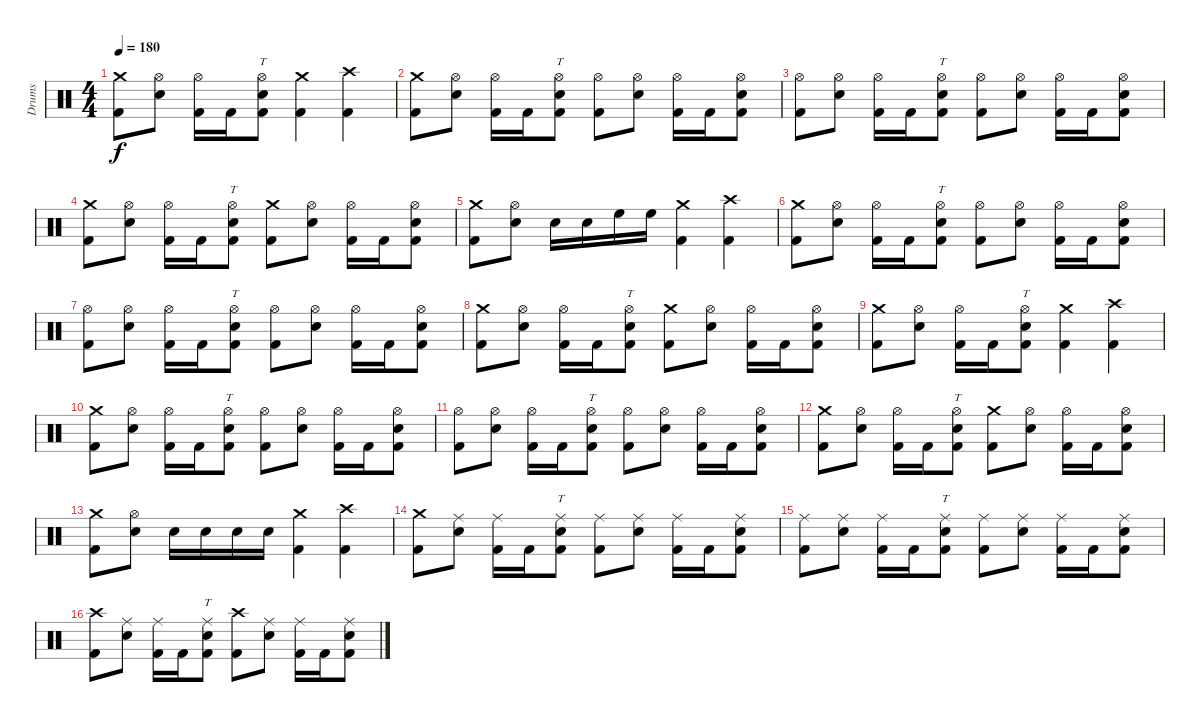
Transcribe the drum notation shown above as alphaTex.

\track ("Drums" "Drums") {instrument percussion}
\staff {score}
\articulation defaults
\ts (4 4)
\tempo 180
\clef neutral
\ks c
("Crash medium (hit)" "Kick (hit) 2").8{dy f} ("Hi-Hat (open)" "Electric Snare (hit)").8 ("Hi-Hat (open)" "Kick (hit) 2").16 "Kick (hit) 2".16 ("Hi-Hat (open)" "Electric Snare (hit)" "Kick (hit) 2").8{tt} ("Crash medium (hit)" "Kick (hit) 2").4 ("Crash high (hit)" "Kick (hit) 2").4 |
("Crash medium (hit)" "Kick (hit) 2").8 ("Hi-Hat (open)" "Electric Snare (hit)").8 ("Hi-Hat (open)" "Kick (hit) 2").16 "Kick (hit) 2".16 ("Hi-Hat (open)" "Electric Snare (hit)" "Kick (hit) 2").8{tt} ("Hi-Hat (open)" "Kick (hit) 2").8 ("Hi-Hat (open)" "Electric Snare (hit)").8 ("Hi-Hat (open)" "Kick (hit) 2").16 "Kick (hit) 2".16 ("Hi-Hat (open)" "Electric Snare (hit)" "Kick (hit) 2").8 |
("Hi-Hat (open)" "Kick (hit) 2").8 ("Hi-Hat (open)" "Electric Snare (hit)").8 ("Hi-Hat (open)" "Kick (hit) 2").16 "Kick (hit) 2".16 ("Hi-Hat (open)" "Electric Snare (hit)" "Kick (hit) 2").8{tt} ("Hi-Hat (open)" "Kick (hit) 2").8 ("Hi-Hat (open)" "Electric Snare (hit)").8 ("Hi-Hat (open)" "Kick (hit) 2").16 "Kick (hit) 2".16 ("Hi-Hat (open)" "Electric Snare (hit)" "Kick (hit) 2").8 |
("Crash medium (hit)" "Kick (hit) 2").8 ("Hi-Hat (open)" "Electric Snare (hit)").8 ("Hi-Hat (open)" "Kick (hit) 2").16 "Kick (hit) 2".16 ("Hi-Hat (open)" "Electric Snare (hit)" "Kick (hit) 2").8{tt} ("Crash medium (hit)" "Kick (hit) 2").8 ("Hi-Hat (open)" "Electric Snare (hit)").8 ("Hi-Hat (open)" "Kick (hit) 2").16 "Kick (hit) 2".16 ("Hi-Hat (open)" "Electric Snare (hit)" "Kick (hit) 2").8 |
("Crash medium (hit)" "Kick (hit) 2").8 ("Hi-Hat (open)" "Electric Snare (hit)").8 "Electric Snare (hit)".16 "Electric Snare (hit)".16 "High Floor Tom (hit)".16 "High Floor Tom (hit)".16 ("Crash medium (hit)" "Kick (hit) 2").4 ("Crash high (hit)" "Kick (hit) 2").4 |
("Crash medium (hit)" "Kick (hit) 2").8 ("Hi-Hat (open)" "Electric Snare (hit)").8 ("Hi-Hat (open)" "Kick (hit) 2").16 "Kick (hit) 2".16 ("Hi-Hat (open)" "Electric Snare (hit)" "Kick (hit) 2").8{tt} ("Hi-Hat (open)" "Kick (hit) 2").8 ("Hi-Hat (open)" "Electric Snare (hit)").8 ("Hi-Hat (open)" "Kick (hit) 2").16 "Kick (hit) 2".16 ("Hi-Hat (open)" "Electric Snare (hit)" "Kick (hit) 2").8 |
("Hi-Hat (open)" "Kick (hit) 2").8 ("Hi-Hat (open)" "Electric Snare (hit)").8 ("Hi-Hat (open)" "Kick (hit) 2").16 "Kick (hit) 2".16 ("Hi-Hat (open)" "Electric Snare (hit)" "Kick (hit) 2").8{tt} ("Hi-Hat (open)" "Kick (hit) 2").8 ("Hi-Hat (open)" "Electric Snare (hit)").8 ("Hi-Hat (open)" "Kick (hit) 2").16 "Kick (hit) 2".16 ("Hi-Hat (open)" "Electric Snare (hit)" "Kick (hit) 2").8 |
("Crash medium (hit)" "Kick (hit) 2").8 ("Hi-Hat (open)" "Electric Snare (hit)").8 ("Hi-Hat (open)" "Kick (hit) 2").16 "Kick (hit) 2".16 ("Hi-Hat (open)" "Electric Snare (hit)" "Kick (hit) 2").8{tt} ("Crash medium (hit)" "Kick (hit) 2").8 ("Hi-Hat (open)" "Electric Snare (hit)").8 ("Hi-Hat (open)" "Kick (hit) 2").16 "Kick (hit) 2".16 ("Hi-Hat (open)" "Electric Snare (hit)" "Kick (hit) 2").8 |
("Crash medium (hit)" "Kick (hit) 2").8 ("Hi-Hat (open)" "Electric Snare (hit)").8 ("Hi-Hat (open)" "Kick (hit) 2").16 "Kick (hit) 2".16 ("Hi-Hat (open)" "Electric Snare (hit)" "Kick (hit) 2").8{tt} ("Crash medium (hit)" "Kick (hit) 2").4 ("Crash high (hit)" "Kick (hit) 2").4 |
("Crash medium (hit)" "Kick (hit) 2").8 ("Hi-Hat (open)" "Electric Snare (hit)").8 ("Hi-Hat (open)" "Kick (hit) 2").16 "Kick (hit) 2".16 ("Hi-Hat (open)" "Electric Snare (hit)" "Kick (hit) 2").8{tt} ("Hi-Hat (open)" "Kick (hit) 2").8 ("Hi-Hat (open)" "Electric Snare (hit)").8 ("Hi-Hat (open)" "Kick (hit) 2").16 "Kick (hit) 2".16 ("Hi-Hat (open)" "Electric Snare (hit)" "Kick (hit) 2").8 |
("Hi-Hat (open)" "Kick (hit) 2").8 ("Hi-Hat (open)" "Electric Snare (hit)").8 ("Hi-Hat (open)" "Kick (hit) 2").16 "Kick (hit) 2".16 ("Hi-Hat (open)" "Electric Snare (hit)" "Kick (hit) 2").8{tt} ("Hi-Hat (open)" "Kick (hit) 2").8 ("Hi-Hat (open)" "Electric Snare (hit)").8 ("Hi-Hat (open)" "Kick (hit) 2").16 "Kick (hit) 2".16 ("Hi-Hat (open)" "Electric Snare (hit)" "Kick (hit) 2").8 |
("Crash medium (hit)" "Kick (hit) 2").8 ("Hi-Hat (open)" "Electric Snare (hit)").8 ("Hi-Hat (open)" "Kick (hit) 2").16 "Kick (hit) 2".16 ("Hi-Hat (open)" "Electric Snare (hit)" "Kick (hit) 2").8{tt} ("Crash medium (hit)" "Kick (hit) 2").8 ("Hi-Hat (open)" "Electric Snare (hit)").8 ("Hi-Hat (open)" "Kick (hit) 2").16 "Kick (hit) 2".16 ("Hi-Hat (open)" "Electric Snare (hit)" "Kick (hit) 2").8 |
("Crash medium (hit)" "Kick (hit) 2").8 ("Hi-Hat (open)" "Electric Snare (hit)").8 "Electric Snare (hit)".16 "Electric Snare (hit)".16 "Electric Snare (hit)".16 "Electric Snare (hit)".16 ("Crash medium (hit)" "Kick (hit) 2").4 ("Crash high (hit)" "Kick (hit) 2").4 |
("Crash medium (hit)" "Kick (hit) 2").8 ("Ride (middle)" "Electric Snare (hit)").8 ("Ride (middle)" "Kick (hit) 2").16 "Kick (hit) 2".16 ("Ride (middle)" "Electric Snare (hit)" "Kick (hit) 2").8{tt} ("Ride (middle)" "Kick (hit) 2").8 ("Ride (middle)" "Electric Snare (hit)").8 ("Ride (middle)" "Kick (hit) 2").16 "Kick (hit) 2".16 ("Ride (middle)" "Electric Snare (hit)" "Kick (hit) 2").8 |
("Ride (middle)" "Kick (hit) 2").8 ("Ride (middle)" "Electric Snare (hit)").8 ("Ride (middle)" "Kick (hit) 2").16 "Kick (hit) 2".16 ("Ride (middle)" "Electric Snare (hit)" "Kick (hit) 2").8{tt} ("Ride (middle)" "Kick (hit) 2").8 ("Ride (middle)" "Electric Snare (hit)").8 ("Ride (middle)" "Kick (hit) 2").16 "Kick (hit) 2".16 ("Ride (middle)" "Electric Snare (hit)" "Kick (hit) 2").8 |
("Crash high (hit)" "Kick (hit) 2").8 ("Ride (middle)" "Electric Snare (hit)").8 ("Ride (middle)" "Kick (hit) 2").16 "Kick (hit) 2".16 ("Ride (middle)" "Electric Snare (hit)" "Kick (hit) 2").8{tt} ("Crash high (hit)" "Kick (hit) 2").8 ("Ride (middle)" "Electric Snare (hit)").8 ("Ride (middle)" "Kick (hit) 2").16 "Kick (hit) 2".16 ("Ride (middle)" "Electric Snare (hit)" "Kick (hit) 2").8
